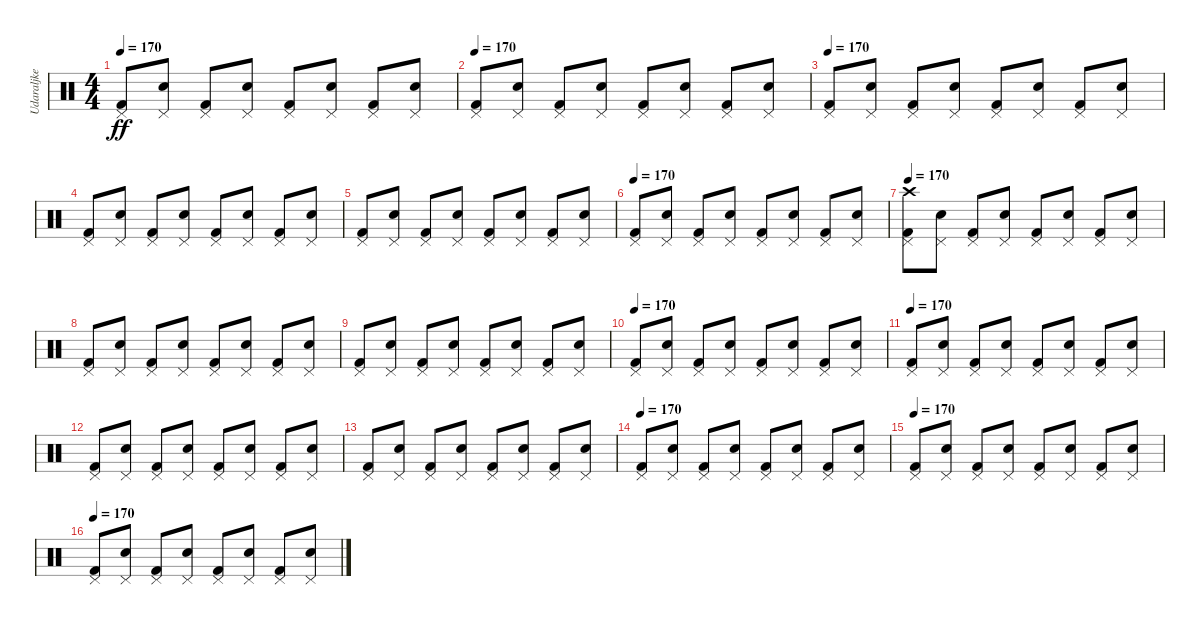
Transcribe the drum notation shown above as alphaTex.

\track ("Udaraljke" "Udaraljke") {instrument percussion}
\staff {score}
\articulation defaults
\ts (4 4)
\tempo 170
\clef neutral
\ks c
("Kick (hit) 2" "Pedal Hi-Hat (hit)").8{dy ff} ("Snare (hit) 2" "Pedal Hi-Hat (hit)").8 ("Kick (hit) 2" "Pedal Hi-Hat (hit)").8 ("Snare (hit) 2" "Pedal Hi-Hat (hit)").8 ("Kick (hit) 2" "Pedal Hi-Hat (hit)").8 ("Snare (hit) 2" "Pedal Hi-Hat (hit)").8 ("Kick (hit) 2" "Pedal Hi-Hat (hit)").8 ("Snare (hit) 2" "Pedal Hi-Hat (hit)").8 |
\tempo 170
("Kick (hit) 2" "Pedal Hi-Hat (hit)").8 ("Snare (hit) 2" "Pedal Hi-Hat (hit)").8 ("Kick (hit) 2" "Pedal Hi-Hat (hit)").8 ("Snare (hit) 2" "Pedal Hi-Hat (hit)").8 ("Kick (hit) 2" "Pedal Hi-Hat (hit)").8 ("Snare (hit) 2" "Pedal Hi-Hat (hit)").8 ("Kick (hit) 2" "Pedal Hi-Hat (hit)").8 ("Snare (hit) 2" "Pedal Hi-Hat (hit)").8 |
\tempo 170
("Kick (hit) 2" "Pedal Hi-Hat (hit)").8 ("Snare (hit) 2" "Pedal Hi-Hat (hit)").8 ("Kick (hit) 2" "Pedal Hi-Hat (hit)").8 ("Snare (hit) 2" "Pedal Hi-Hat (hit)").8 ("Kick (hit) 2" "Pedal Hi-Hat (hit)").8 ("Snare (hit) 2" "Pedal Hi-Hat (hit)").8 ("Kick (hit) 2" "Pedal Hi-Hat (hit)").8 ("Snare (hit) 2" "Pedal Hi-Hat (hit)").8 |
("Kick (hit) 2" "Pedal Hi-Hat (hit)").8 ("Snare (hit) 2" "Pedal Hi-Hat (hit)").8 ("Kick (hit) 2" "Pedal Hi-Hat (hit)").8 ("Snare (hit) 2" "Pedal Hi-Hat (hit)").8 ("Kick (hit) 2" "Pedal Hi-Hat (hit)").8 ("Snare (hit) 2" "Pedal Hi-Hat (hit)").8 ("Kick (hit) 2" "Pedal Hi-Hat (hit)").8 ("Snare (hit) 2" "Pedal Hi-Hat (hit)").8 |
("Kick (hit) 2" "Pedal Hi-Hat (hit)").8 ("Snare (hit) 2" "Pedal Hi-Hat (hit)").8 ("Kick (hit) 2" "Pedal Hi-Hat (hit)").8 ("Snare (hit) 2" "Pedal Hi-Hat (hit)").8 ("Kick (hit) 2" "Pedal Hi-Hat (hit)").8 ("Snare (hit) 2" "Pedal Hi-Hat (hit)").8 ("Kick (hit) 2" "Pedal Hi-Hat (hit)").8 ("Snare (hit) 2" "Pedal Hi-Hat (hit)").8 |
\tempo 170
("Kick (hit) 2" "Pedal Hi-Hat (hit)").8 ("Snare (hit) 2" "Pedal Hi-Hat (hit)").8 ("Kick (hit) 2" "Pedal Hi-Hat (hit)").8 ("Snare (hit) 2" "Pedal Hi-Hat (hit)").8 ("Kick (hit) 2" "Pedal Hi-Hat (hit)").8 ("Snare (hit) 2" "Pedal Hi-Hat (hit)").8 ("Kick (hit) 2" "Pedal Hi-Hat (hit)").8 ("Snare (hit) 2" "Pedal Hi-Hat (hit)").8 |
\tempo 170
("Kick (hit) 2" "Pedal Hi-Hat (hit)" "Crash high (hit)").8 ("Snare (hit) 2" "Pedal Hi-Hat (hit)").8 ("Kick (hit) 2" "Pedal Hi-Hat (hit)").8 ("Snare (hit) 2" "Pedal Hi-Hat (hit)").8 ("Kick (hit) 2" "Pedal Hi-Hat (hit)").8 ("Snare (hit) 2" "Pedal Hi-Hat (hit)").8 ("Kick (hit) 2" "Pedal Hi-Hat (hit)").8 ("Snare (hit) 2" "Pedal Hi-Hat (hit)").8 |
("Kick (hit) 2" "Pedal Hi-Hat (hit)").8 ("Snare (hit) 2" "Pedal Hi-Hat (hit)").8 ("Kick (hit) 2" "Pedal Hi-Hat (hit)").8 ("Snare (hit) 2" "Pedal Hi-Hat (hit)").8 ("Kick (hit) 2" "Pedal Hi-Hat (hit)").8 ("Snare (hit) 2" "Pedal Hi-Hat (hit)").8 ("Kick (hit) 2" "Pedal Hi-Hat (hit)").8 ("Snare (hit) 2" "Pedal Hi-Hat (hit)").8 |
("Kick (hit) 2" "Pedal Hi-Hat (hit)").8 ("Snare (hit) 2" "Pedal Hi-Hat (hit)").8 ("Kick (hit) 2" "Pedal Hi-Hat (hit)").8 ("Snare (hit) 2" "Pedal Hi-Hat (hit)").8 ("Kick (hit) 2" "Pedal Hi-Hat (hit)").8 ("Snare (hit) 2" "Pedal Hi-Hat (hit)").8 ("Kick (hit) 2" "Pedal Hi-Hat (hit)").8 ("Snare (hit) 2" "Pedal Hi-Hat (hit)").8 |
\tempo 170
("Kick (hit) 2" "Pedal Hi-Hat (hit)").8 ("Snare (hit) 2" "Pedal Hi-Hat (hit)").8 ("Kick (hit) 2" "Pedal Hi-Hat (hit)").8 ("Snare (hit) 2" "Pedal Hi-Hat (hit)").8 ("Kick (hit) 2" "Pedal Hi-Hat (hit)").8 ("Snare (hit) 2" "Pedal Hi-Hat (hit)").8 ("Kick (hit) 2" "Pedal Hi-Hat (hit)").8 ("Snare (hit) 2" "Pedal Hi-Hat (hit)").8 |
\tempo 170
("Kick (hit) 2" "Pedal Hi-Hat (hit)").8 ("Snare (hit) 2" "Pedal Hi-Hat (hit)").8 ("Kick (hit) 2" "Pedal Hi-Hat (hit)").8 ("Snare (hit) 2" "Pedal Hi-Hat (hit)").8 ("Kick (hit) 2" "Pedal Hi-Hat (hit)").8 ("Snare (hit) 2" "Pedal Hi-Hat (hit)").8 ("Kick (hit) 2" "Pedal Hi-Hat (hit)").8 ("Snare (hit) 2" "Pedal Hi-Hat (hit)").8 |
("Kick (hit) 2" "Pedal Hi-Hat (hit)").8 ("Snare (hit) 2" "Pedal Hi-Hat (hit)").8 ("Kick (hit) 2" "Pedal Hi-Hat (hit)").8 ("Snare (hit) 2" "Pedal Hi-Hat (hit)").8 ("Kick (hit) 2" "Pedal Hi-Hat (hit)").8 ("Snare (hit) 2" "Pedal Hi-Hat (hit)").8 ("Kick (hit) 2" "Pedal Hi-Hat (hit)").8 ("Snare (hit) 2" "Pedal Hi-Hat (hit)").8 |
("Kick (hit) 2" "Pedal Hi-Hat (hit)").8 ("Snare (hit) 2" "Pedal Hi-Hat (hit)").8 ("Kick (hit) 2" "Pedal Hi-Hat (hit)").8 ("Snare (hit) 2" "Pedal Hi-Hat (hit)").8 ("Kick (hit) 2" "Pedal Hi-Hat (hit)").8 ("Snare (hit) 2" "Pedal Hi-Hat (hit)").8 ("Kick (hit) 2" "Pedal Hi-Hat (hit)").8 ("Snare (hit) 2" "Pedal Hi-Hat (hit)").8 |
\tempo 170
("Kick (hit) 2" "Pedal Hi-Hat (hit)").8 ("Snare (hit) 2" "Pedal Hi-Hat (hit)").8 ("Kick (hit) 2" "Pedal Hi-Hat (hit)").8 ("Snare (hit) 2" "Pedal Hi-Hat (hit)").8 ("Kick (hit) 2" "Pedal Hi-Hat (hit)").8 ("Snare (hit) 2" "Pedal Hi-Hat (hit)").8 ("Kick (hit) 2" "Pedal Hi-Hat (hit)").8 ("Snare (hit) 2" "Pedal Hi-Hat (hit)").8 |
\tempo 170
("Kick (hit) 2" "Pedal Hi-Hat (hit)").8 ("Snare (hit) 2" "Pedal Hi-Hat (hit)").8 ("Kick (hit) 2" "Pedal Hi-Hat (hit)").8 ("Snare (hit) 2" "Pedal Hi-Hat (hit)").8 ("Kick (hit) 2" "Pedal Hi-Hat (hit)").8 ("Snare (hit) 2" "Pedal Hi-Hat (hit)").8 ("Kick (hit) 2" "Pedal Hi-Hat (hit)").8 ("Snare (hit) 2" "Pedal Hi-Hat (hit)").8 |
\tempo 170
("Kick (hit) 2" "Pedal Hi-Hat (hit)").8 ("Snare (hit) 2" "Pedal Hi-Hat (hit)").8 ("Kick (hit) 2" "Pedal Hi-Hat (hit)").8 ("Snare (hit) 2" "Pedal Hi-Hat (hit)").8 ("Kick (hit) 2" "Pedal Hi-Hat (hit)").8 ("Snare (hit) 2" "Pedal Hi-Hat (hit)").8 ("Kick (hit) 2" "Pedal Hi-Hat (hit)").8 ("Snare (hit) 2" "Pedal Hi-Hat (hit)").8
